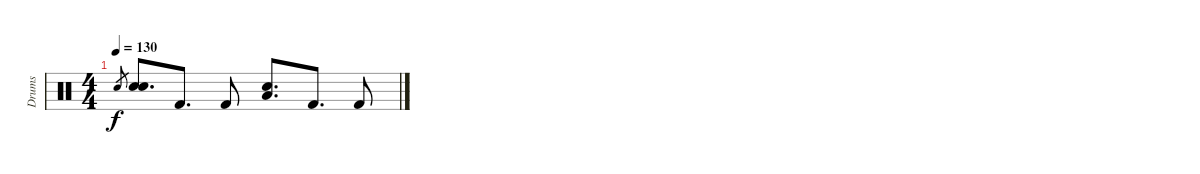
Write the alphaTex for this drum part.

\track ("Drums" "Drums") {instrument percussion}
\staff {score}
\articulation defaults
\ts (4 4)
\tempo 130
\clef neutral
\ks c "Snare (hit) 2".8{gr dy f}
("Snare (hit) 2" "Snare (hit) 2").8{d} "Kick (hit) 2".8{d} "Kick (hit) 2".8 ("Snare (hit) 2" "Low Tom (hit)").8{d} "Kick (hit) 2".8{d} "Kick (hit) 2".8
